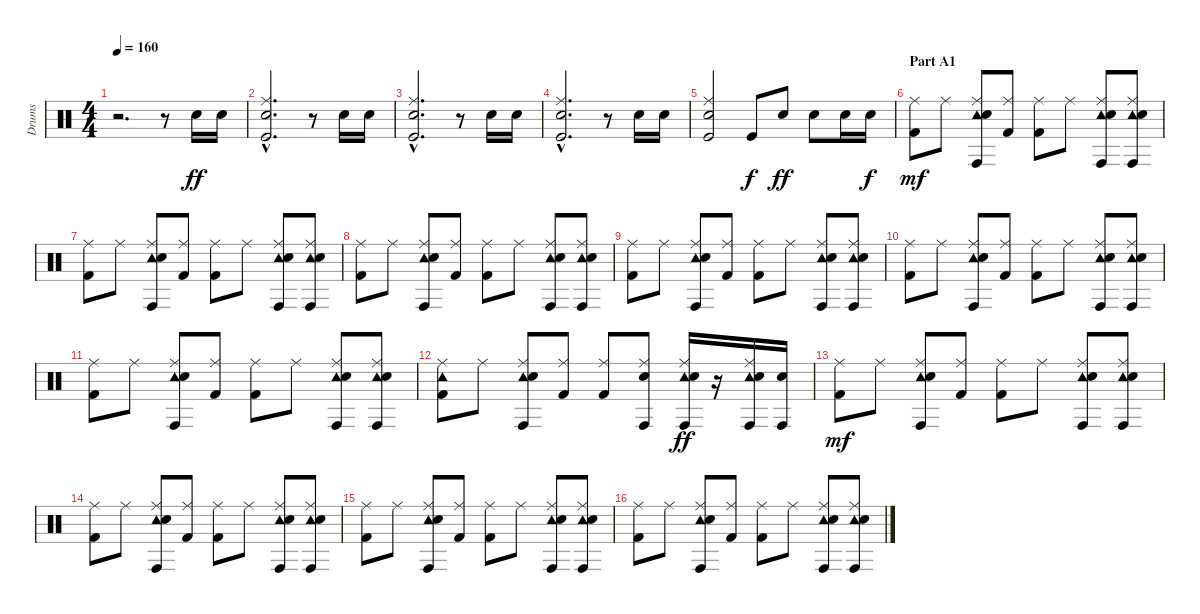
\track ("Drums" "Drums") {instrument percussion}
\staff {score}
\articulation defaults
\ts (4 4)
\tempo 160
\clef neutral
\ks c
r.2{d dy ff} r.8 "Electric Snare (hit)".16 "Electric Snare (hit)".16 |
("Ride (middle)"{hac} "Electric Snare (hit)"{hac} "Kick (hit)"{hac}).2{d} r.8 "Electric Snare (hit)".16 "Electric Snare (hit)".16 |
("Ride (middle)"{hac} "Electric Snare (hit)"{hac} "Kick (hit)"{hac}).2{d} r.8 "Electric Snare (hit)".16 "Electric Snare (hit)".16 |
("Ride (middle)"{hac} "Electric Snare (hit)"{hac} "Kick (hit)"{hac}).2{d} r.8 "Electric Snare (hit)".16 "Electric Snare (hit)".16 |
("Ride (middle)" "Electric Snare (hit)" "Kick (hit)").2 "Kick (hit)".8{dy f} "Electric Snare (hit)".8{dy ff} "Electric Snare (hit)".8 "Electric Snare (hit)".16 "Electric Snare (hit)".16{dy f} |
\section ("" "Part A1")
("Ride (middle)" "Kick (hit) 2").8{dy mf} "Ride (middle)".8 ("Ride (middle)" "Tambourine (hit)" "Conga high (hit)" "Electric Snare (hit)").8 ("Ride (middle)" "Kick (hit) 2").8 ("Ride (middle)" "Kick (hit) 2").8 "Ride (middle)".8 ("Ride (middle)" "Tambourine (hit)" "Conga high (hit)" "Electric Snare (hit)").8 ("Ride (middle)" "Tambourine (hit)" "Conga high (hit)" "Electric Snare (hit)").8 |
("Ride (middle)" "Kick (hit) 2").8 "Ride (middle)".8 ("Ride (middle)" "Tambourine (hit)" "Conga high (hit)" "Electric Snare (hit)").8 ("Ride (middle)" "Kick (hit) 2").8 ("Ride (middle)" "Kick (hit) 2").8 "Ride (middle)".8 ("Ride (middle)" "Tambourine (hit)" "Conga high (hit)" "Electric Snare (hit)").8 ("Ride (middle)" "Tambourine (hit)" "Conga high (hit)" "Electric Snare (hit)").8 |
("Ride (middle)" "Kick (hit) 2").8 "Ride (middle)".8 ("Ride (middle)" "Tambourine (hit)" "Conga high (hit)" "Electric Snare (hit)").8 ("Ride (middle)" "Kick (hit) 2").8 ("Ride (middle)" "Kick (hit) 2").8 "Ride (middle)".8 ("Ride (middle)" "Tambourine (hit)" "Conga high (hit)" "Electric Snare (hit)").8 ("Ride (middle)" "Tambourine (hit)" "Conga high (hit)" "Electric Snare (hit)").8 |
("Ride (middle)" "Kick (hit) 2").8 "Ride (middle)".8 ("Ride (middle)" "Tambourine (hit)" "Conga high (hit)" "Electric Snare (hit)").8 ("Ride (middle)" "Kick (hit) 2").8 ("Ride (middle)" "Kick (hit) 2").8 "Ride (middle)".8 ("Ride (middle)" "Tambourine (hit)" "Conga high (hit)" "Electric Snare (hit)").8 ("Ride (middle)" "Tambourine (hit)" "Conga high (hit)" "Electric Snare (hit)").8 |
("Ride (middle)" "Kick (hit) 2").8 "Ride (middle)".8 ("Ride (middle)" "Tambourine (hit)" "Conga high (hit)" "Electric Snare (hit)").8 ("Ride (middle)" "Kick (hit) 2").8 ("Ride (middle)" "Kick (hit) 2").8 "Ride (middle)".8 ("Ride (middle)" "Tambourine (hit)" "Conga high (hit)" "Electric Snare (hit)").8 ("Ride (middle)" "Tambourine (hit)" "Conga high (hit)" "Electric Snare (hit)").8 |
("Ride (middle)" "Kick (hit) 2").8 "Ride (middle)".8 ("Ride (middle)" "Tambourine (hit)" "Conga high (hit)" "Electric Snare (hit)").8 ("Ride (middle)" "Kick (hit) 2").8 ("Ride (middle)" "Kick (hit) 2").8 "Ride (middle)".8 ("Ride (middle)" "Tambourine (hit)" "Conga high (hit)" "Electric Snare (hit)").8 ("Ride (middle)" "Tambourine (hit)" "Conga high (hit)" "Electric Snare (hit)").8 |
("Ride (middle)" "Tambourine (hit)" "Kick (hit) 2").8 "Ride (middle)".8 ("Ride (middle)" "Tambourine (hit)" "Conga high (hit)" "Electric Snare (hit)").8 ("Ride (middle)" "Kick (hit) 2").8 ("Ride (middle)" "Kick (hit) 2").8 ("Ride (middle)" "Conga high (hit)" "Electric Snare (hit)").8 ("Ride (middle)" "Tambourine (hit)" "Conga high (hit)" "Electric Snare (hit)").16{dy ff} r.16 ("Ride (middle)" "Tambourine (hit)" "Conga high (hit)" "Electric Snare (hit)").16 ("Conga high (hit)" "Electric Snare (hit)").16 |
("Ride (middle)" "Kick (hit) 2").8{dy mf} "Ride (middle)".8 ("Ride (middle)" "Tambourine (hit)" "Conga high (hit)" "Electric Snare (hit)").8 ("Ride (middle)" "Kick (hit) 2").8 ("Ride (middle)" "Kick (hit) 2").8 "Ride (middle)".8 ("Ride (middle)" "Tambourine (hit)" "Conga high (hit)" "Electric Snare (hit)").8 ("Ride (middle)" "Tambourine (hit)" "Conga high (hit)" "Electric Snare (hit)").8 |
("Ride (middle)" "Kick (hit) 2").8 "Ride (middle)".8 ("Ride (middle)" "Tambourine (hit)" "Conga high (hit)" "Electric Snare (hit)").8 ("Ride (middle)" "Kick (hit) 2").8 ("Ride (middle)" "Kick (hit) 2").8 "Ride (middle)".8 ("Ride (middle)" "Tambourine (hit)" "Conga high (hit)" "Electric Snare (hit)").8 ("Ride (middle)" "Tambourine (hit)" "Conga high (hit)" "Electric Snare (hit)").8 |
("Ride (middle)" "Kick (hit) 2").8 "Ride (middle)".8 ("Ride (middle)" "Tambourine (hit)" "Conga high (hit)" "Electric Snare (hit)").8 ("Ride (middle)" "Kick (hit) 2").8 ("Ride (middle)" "Kick (hit) 2").8 "Ride (middle)".8 ("Ride (middle)" "Tambourine (hit)" "Conga high (hit)" "Electric Snare (hit)").8 ("Ride (middle)" "Tambourine (hit)" "Conga high (hit)" "Electric Snare (hit)").8 |
("Ride (middle)" "Kick (hit) 2").8 "Ride (middle)".8 ("Ride (middle)" "Tambourine (hit)" "Conga high (hit)" "Electric Snare (hit)").8 ("Ride (middle)" "Kick (hit) 2").8 ("Ride (middle)" "Kick (hit) 2").8 "Ride (middle)".8 ("Ride (middle)" "Tambourine (hit)" "Conga high (hit)" "Electric Snare (hit)").8 ("Ride (middle)" "Tambourine (hit)" "Conga high (hit)" "Electric Snare (hit)").8
